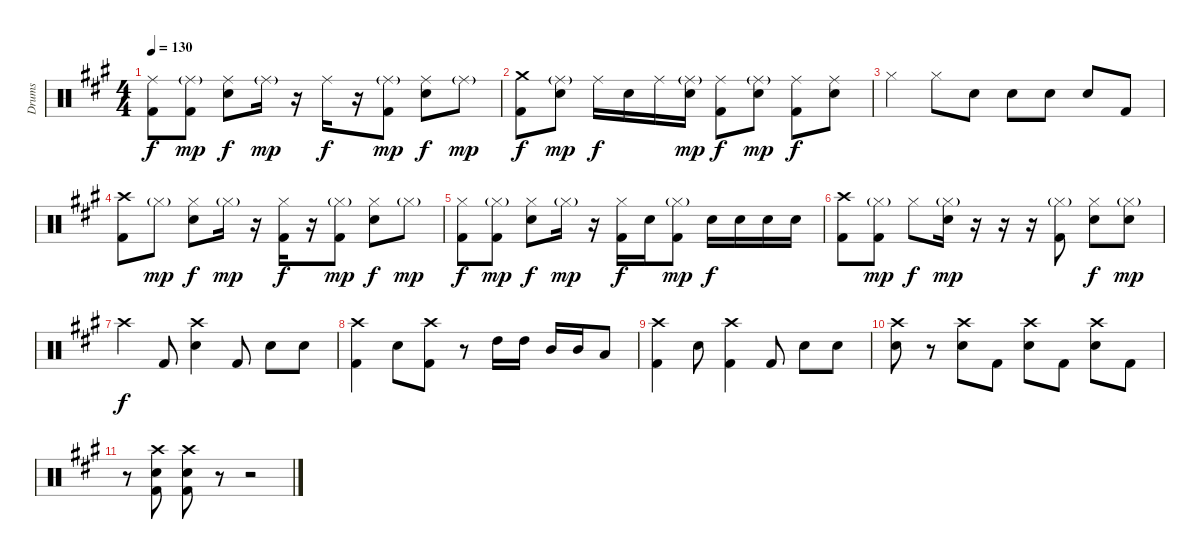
\track ("Drums" "Drums") {instrument percussion}
\staff {score}
\articulation defaults
\ts (4 4)
\tempo 130
\clef neutral
\ks a
("Ride (middle)" "Kick (hit) 2").8{dy f} ("Ride (middle)"{g} "Kick (hit) 2").8{dy mp} ("Ride (middle)" "Electric Snare (hit)").8{dy f} "Ride (middle)"{g}.16{dy mp} r.16 "Ride (middle)".16{dy f} r.16 ("Ride (middle)"{g} "Kick (hit) 2").8{dy mp} ("Ride (middle)" "Electric Snare (hit)").8{dy f} "Ride (middle)"{g}.8{dy mp} |
("Crash medium (hit)" "Kick (hit) 2").8{dy f} ("Electric Snare (hit)" "Ride (middle)"{g}).8{dy mp} "Ride (middle)".16{dy f} "Electric Snare (hit)".16 "Ride (middle)".16 ("Ride (middle)"{g} "Electric Snare (hit)").16{dy mp} ("Kick (hit) 2" "Ride (middle)").8{dy f} ("Electric Snare (hit)" "Ride (middle)"{g}).8{dy mp} ("Kick (hit) 2" "Ride (middle)").8{dy f} ("Ride (middle)" "Electric Snare (hit)").8 |
"Hi-Hat (closed)".4 "Hi-Hat (closed)".8 "Electric Snare (hit)".8 "Electric Snare (hit)".8 "Electric Snare (hit)".8 "Electric Snare (hit)".8 "Kick (hit) 2".8 |
("Crash high (hit)" "Kick (hit) 2").8 "Hi-Hat (closed)"{g}.8{dy mp} ("Hi-Hat (closed)" "Electric Snare (hit)").8{dy f} "Hi-Hat (closed)"{g}.16{dy mp} r.16 ("Hi-Hat (closed)" "Kick (hit) 2").16{dy f} r.16 ("Hi-Hat (closed)"{g} "Kick (hit) 2").8{dy mp} ("Hi-Hat (closed)" "Electric Snare (hit)").8{dy f} "Hi-Hat (closed)"{g}.8{dy mp} |
("Hi-Hat (closed)" "Kick (hit) 2").8{dy f} ("Hi-Hat (closed)"{g} "Kick (hit) 2").8{dy mp} ("Hi-Hat (closed)" "Electric Snare (hit)").8{dy f} "Hi-Hat (closed)"{g}.16{dy mp} r.16 ("Hi-Hat (closed)" "Kick (hit) 2").16{dy f} "Electric Snare (hit)".16 ("Hi-Hat (closed)"{g} "Kick (hit) 2").8{dy mp} "Electric Snare (hit)".16{dy f} "Electric Snare (hit)".16 "Electric Snare (hit)".16 "Electric Snare (hit)".16 |
("Crash high (hit)" "Kick (hit) 2").8 ("Kick (hit) 2" "Hi-Hat (closed)"{g}).8{dy mp} "Hi-Hat (closed)".8{dy f} ("Electric Snare (hit)" "Hi-Hat (closed)"{g}).16{dy mp} r.16 r.16 r.16 ("Hi-Hat (closed)"{g} "Kick (hit) 2").8 ("Hi-Hat (closed)" "Electric Snare (hit)").8{dy f} ("Electric Snare (hit)" "Hi-Hat (closed)"{g}).8{dy mp} |
"Crash high (hit)".4{dy f} "Kick (hit) 2".8 ("Electric Snare (hit)" "Crash high (hit)").4 "Kick (hit) 2".8 "Electric Snare (hit)".8 "Electric Snare (hit)".8 |
("Crash high (hit)" "Kick (hit) 2").4 "Electric Snare (hit)".8 ("Kick (hit) 2" "Crash high (hit)").8 r.8 "High Tom (hit)".16 "High Tom (hit)".16 "Mid Tom (hit)".16 "Mid Tom (hit)".16 "Low Tom (hit)".8 |
("Crash high (hit)" "Kick (hit) 2").4 "Electric Snare (hit)".8 ("Kick (hit) 2" "Crash high (hit)").4 "Kick (hit) 2".8 "Electric Snare (hit)".8 "Electric Snare (hit)".8 |
("Crash high (hit)" "Electric Snare (hit)").8 r.8 ("Crash high (hit)" "Electric Snare (hit)").8 "Kick (hit) 2".8 ("Crash high (hit)" "Electric Snare (hit)").8 "Kick (hit) 2".8 ("Crash high (hit)" "Electric Snare (hit)").8 "Kick (hit) 2".8 |
r.8 ("Crash high (hit)" "Electric Snare (hit)" "Kick (hit) 2").8 ("Crash high (hit)" "Electric Snare (hit)" "Kick (hit) 2").8 r.8 r.2
